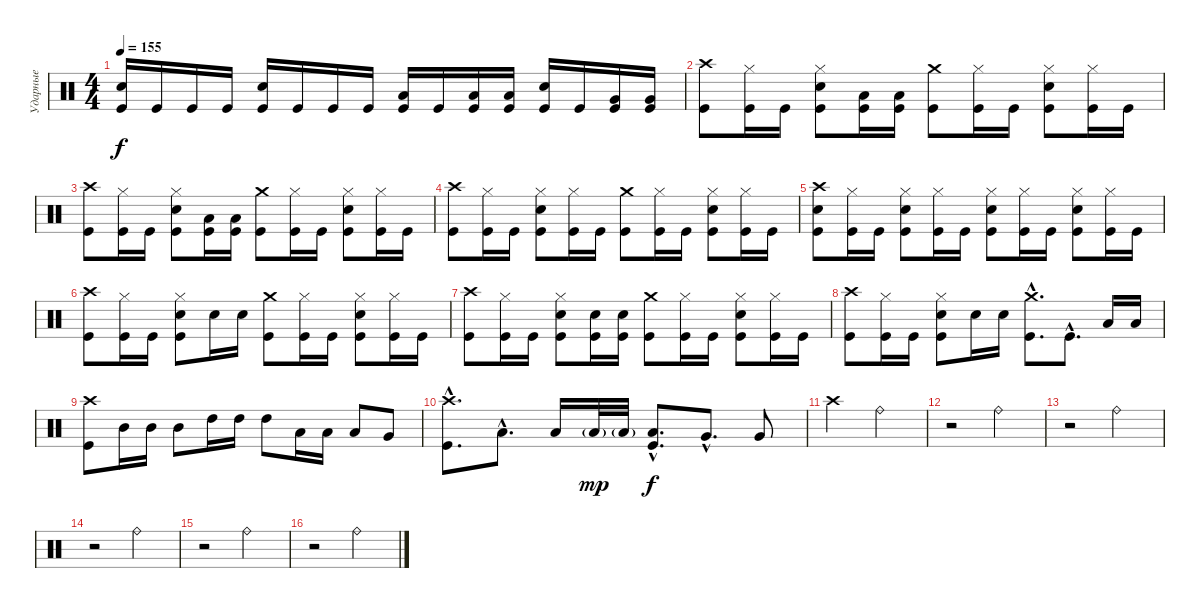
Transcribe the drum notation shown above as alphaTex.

\track ("Ударные" "Ударные") {instrument percussion}
\staff {score}
\articulation defaults
\ts (4 4)
\tempo 155
\clef neutral
\ks c
("Electric Snare (hit)" "Kick (hit)").16{dy f} "Kick (hit)".16 "Kick (hit)".16 "Kick (hit)".16 ("Electric Snare (hit)" "Kick (hit)").16 "Kick (hit)".16 "Kick (hit)".16 "Kick (hit)".16 ("Low Tom (hit)" "Kick (hit)").16 "Kick (hit)".16 ("Low Tom (hit)" "Kick (hit)").16 ("Low Tom (hit)" "Kick (hit)").16 ("Electric Snare (hit)" "Kick (hit)").16 "Kick (hit)".16 ("Very Low Tom (hit)" "Kick (hit)").16 ("Very Low Tom (hit)" "Kick (hit)").16 |
("Crash high (hit)" "Kick (hit)").8 ("Hi-Hat (closed)" "Kick (hit)").16 "Kick (hit)".16 ("Hi-Hat (closed)" "Electric Snare (hit)" "Kick (hit)").8 ("Low Tom (hit)" "Kick (hit)").16 ("Low Tom (hit)" "Kick (hit)").16 ("Crash medium (hit)" "Kick (hit)").8 ("Hi-Hat (closed)" "Kick (hit)").16 "Kick (hit)".16 ("Hi-Hat (closed)" "Electric Snare (hit)" "Kick (hit)").8 ("Hi-Hat (closed)" "Kick (hit)").16 "Kick (hit)".16 |
("Crash high (hit)" "Kick (hit)").8 ("Hi-Hat (closed)" "Kick (hit)").16 "Kick (hit)".16 ("Hi-Hat (closed)" "Electric Snare (hit)" "Kick (hit)").8 ("Low Tom (hit)" "Kick (hit)").16 ("Low Tom (hit)" "Kick (hit)").16 ("Crash medium (hit)" "Kick (hit)").8 ("Hi-Hat (closed)" "Kick (hit)").16 "Kick (hit)".16 ("Hi-Hat (closed)" "Electric Snare (hit)" "Kick (hit)").8 ("Hi-Hat (closed)" "Kick (hit)").16 "Kick (hit)".16 |
("Crash high (hit)" "Kick (hit)").8 ("Hi-Hat (closed)" "Kick (hit)").16 "Kick (hit)".16 ("Hi-Hat (closed)" "Electric Snare (hit)" "Kick (hit)").8 ("Hi-Hat (closed)" "Kick (hit)").16 "Kick (hit)".16 ("Crash medium (hit)" "Kick (hit)").8 ("Hi-Hat (closed)" "Kick (hit)").16 "Kick (hit)".16 ("Hi-Hat (closed)" "Electric Snare (hit)" "Kick (hit)").8 ("Hi-Hat (closed)" "Kick (hit)").16 "Kick (hit)".16 |
("Crash high (hit)" "Electric Snare (hit)" "Kick (hit)").8 ("Hi-Hat (closed)" "Kick (hit)").16 "Kick (hit)".16 ("Hi-Hat (closed)" "Electric Snare (hit)" "Kick (hit)").8 ("Hi-Hat (closed)" "Kick (hit)").16 "Kick (hit)".16 ("Hi-Hat (closed)" "Electric Snare (hit)" "Kick (hit)").8 ("Hi-Hat (closed)" "Kick (hit)").16 "Kick (hit)".16 ("Hi-Hat (closed)" "Electric Snare (hit)" "Kick (hit)").8 ("Hi-Hat (closed)" "Kick (hit)").16 "Kick (hit)".16 |
("Crash high (hit)" "Kick (hit)").8 ("Hi-Hat (closed)" "Kick (hit)").16 "Kick (hit)".16 ("Hi-Hat (closed)" "Electric Snare (hit)" "Kick (hit)").8 "Electric Snare (hit)".16 "Electric Snare (hit)".16 ("Crash medium (hit)" "Kick (hit)").8 ("Hi-Hat (closed)" "Kick (hit)").16 "Kick (hit)".16 ("Hi-Hat (closed)" "Electric Snare (hit)" "Kick (hit)").8 ("Hi-Hat (closed)" "Kick (hit)").16 "Kick (hit)".16 |
("Crash high (hit)" "Kick (hit)").8 ("Hi-Hat (closed)" "Kick (hit)").16 "Kick (hit)".16 ("Hi-Hat (closed)" "Electric Snare (hit)" "Kick (hit)").8 ("Electric Snare (hit)" "Kick (hit)").16 ("Electric Snare (hit)" "Kick (hit)").16 ("Crash medium (hit)" "Kick (hit)").8 ("Hi-Hat (closed)" "Kick (hit)").16 "Kick (hit)".16 ("Hi-Hat (closed)" "Electric Snare (hit)" "Kick (hit)").8 ("Hi-Hat (closed)" "Kick (hit)").16 "Kick (hit)".16 |
("Crash high (hit)" "Kick (hit)").8 ("Hi-Hat (closed)" "Kick (hit)").16 "Kick (hit)".16 ("Hi-Hat (closed)" "Electric Snare (hit)" "Kick (hit)").8 "Electric Snare (hit)".16 "Electric Snare (hit)".16 ("Crash medium (hit)"{hac} "Kick (hit)"{hac}).8{d} "Kick (hit)"{hac}.8{d} "Low Tom (hit)".16 "Low Tom (hit)".16 |
("Crash high (hit)" "Kick (hit)").8 "Mid Tom (hit)".16 "Mid Tom (hit)".16 "Mid Tom (hit)".8 "High Tom (hit)".16 "High Tom (hit)".16 "High Tom (hit)".8 "Low Tom (hit)".16 "Low Tom (hit)".16 "Low Tom (hit)".8 "Very Low Tom (hit)".8 |
("Crash high (hit)"{hac} "Kick (hit)"{hac}).8{d} "Low Tom (hit)"{hac}.8{d} "Low Tom (hit)".16 "Low Tom (hit)"{g}.32{dy mp} "Low Tom (hit)"{g}.32 ("Low Tom (hit)"{hac} "Kick (hit)"{hac}).8{d dy f} "Very Low Tom (hit)"{hac}.8{d} "Very Low Tom (hit)".8 |
"Crash high (hit)".2 "Ride (bell)".2 |
r.2 "Ride (bell)".2 |
r.2 "Ride (bell)".2 |
r.2 "Ride (bell)".2 |
r.2 "Ride (bell)".2 |
r.2 "Ride (bell)".2
